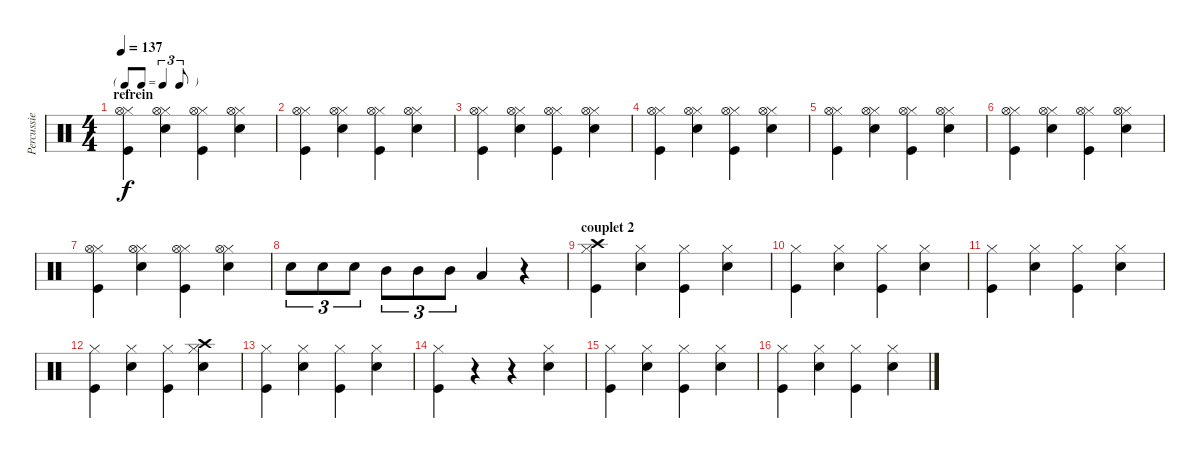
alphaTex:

\track ("Percussie" "Percussie") {instrument percussion}
\staff {score}
\articulation defaults
\ts (4 4)
\tf triplet8th
\section ("" "refrein")
\tempo 137
\clef neutral
\ks c
("Hi-Hat (closed)" "Hi-Hat (open)" "Kick (hit)").4{dy f} ("Hi-Hat (closed)" "Hi-Hat (open)" "Snare (hit) 2").4 ("Hi-Hat (closed)" "Hi-Hat (open)" "Kick (hit)").4 ("Hi-Hat (closed)" "Hi-Hat (open)" "Snare (hit) 2").4 |
("Hi-Hat (closed)" "Hi-Hat (open)" "Kick (hit)").4 ("Hi-Hat (closed)" "Hi-Hat (open)" "Snare (hit) 2").4 ("Hi-Hat (closed)" "Hi-Hat (open)" "Kick (hit)").4 ("Hi-Hat (closed)" "Hi-Hat (open)" "Snare (hit) 2").4 |
("Hi-Hat (closed)" "Hi-Hat (open)" "Kick (hit)").4 ("Hi-Hat (closed)" "Hi-Hat (open)" "Snare (hit) 2").4 ("Hi-Hat (closed)" "Hi-Hat (open)" "Kick (hit)").4 ("Hi-Hat (closed)" "Hi-Hat (open)" "Snare (hit) 2").4 |
("Hi-Hat (closed)" "Hi-Hat (open)" "Kick (hit)").4 ("Hi-Hat (closed)" "Hi-Hat (open)" "Snare (hit) 2").4 ("Hi-Hat (closed)" "Hi-Hat (open)" "Kick (hit)").4 ("Hi-Hat (closed)" "Hi-Hat (open)" "Snare (hit) 2").4 |
("Hi-Hat (closed)" "Hi-Hat (open)" "Kick (hit)").4 ("Hi-Hat (closed)" "Hi-Hat (open)" "Snare (hit) 2").4 ("Hi-Hat (closed)" "Hi-Hat (open)" "Kick (hit)").4 ("Hi-Hat (closed)" "Hi-Hat (open)" "Snare (hit) 2").4 |
("Hi-Hat (closed)" "Hi-Hat (open)" "Kick (hit)").4 ("Hi-Hat (closed)" "Hi-Hat (open)" "Snare (hit) 2").4 ("Hi-Hat (closed)" "Hi-Hat (open)" "Kick (hit)").4 ("Hi-Hat (closed)" "Hi-Hat (open)" "Snare (hit) 2").4 |
("Hi-Hat (closed)" "Hi-Hat (open)" "Kick (hit)").4 ("Hi-Hat (closed)" "Hi-Hat (open)" "Snare (hit) 2").4 ("Hi-Hat (closed)" "Hi-Hat (open)" "Kick (hit)").4 ("Hi-Hat (closed)" "Hi-Hat (open)" "Snare (hit) 2").4 |
"Snare (hit) 2".8{tu (3 2)} "Snare (hit) 2".8{tu (3 2)} "Snare (hit) 2".8{tu (3 2)} "Mid Tom (hit)".8{tu (3 2)} "Mid Tom (hit)".8{tu (3 2)} "Mid Tom (hit)".8{tu (3 2)} "Low Tom (hit)".4 r.4 |
\section ("" "couplet 2")
("Hi-Hat (closed)" "Crash high (hit)" "Kick (hit)").4 ("Hi-Hat (closed)" "Snare (hit) 2").4 ("Hi-Hat (closed)" "Kick (hit)").4 ("Hi-Hat (closed)" "Snare (hit) 2").4 |
("Hi-Hat (closed)" "Kick (hit)").4 ("Hi-Hat (closed)" "Snare (hit) 2").4 ("Hi-Hat (closed)" "Kick (hit)").4 ("Hi-Hat (closed)" "Snare (hit) 2").4 |
("Hi-Hat (closed)" "Kick (hit)").4 ("Hi-Hat (closed)" "Snare (hit) 2").4 ("Hi-Hat (closed)" "Kick (hit)").4 ("Hi-Hat (closed)" "Snare (hit) 2").4 |
("Hi-Hat (closed)" "Kick (hit)").4 ("Hi-Hat (closed)" "Snare (hit) 2").4 ("Hi-Hat (closed)" "Kick (hit)").4 ("Hi-Hat (closed)" "Crash high (hit)" "Snare (hit) 2").4 |
("Hi-Hat (closed)" "Kick (hit)").4 ("Hi-Hat (closed)" "Snare (hit) 2").4 ("Hi-Hat (closed)" "Kick (hit)").4 ("Hi-Hat (closed)" "Snare (hit) 2").4 |
("Hi-Hat (closed)" "Kick (hit)").4 r.4 r.4 ("Hi-Hat (closed)" "Snare (hit) 2").4 |
("Hi-Hat (closed)" "Kick (hit)").4 ("Hi-Hat (closed)" "Snare (hit) 2").4 ("Hi-Hat (closed)" "Kick (hit)").4 ("Hi-Hat (closed)" "Snare (hit) 2").4 |
("Hi-Hat (closed)" "Kick (hit)").4 ("Hi-Hat (closed)" "Snare (hit) 2").4 ("Hi-Hat (closed)" "Kick (hit)").4 ("Hi-Hat (closed)" "Snare (hit) 2").4
